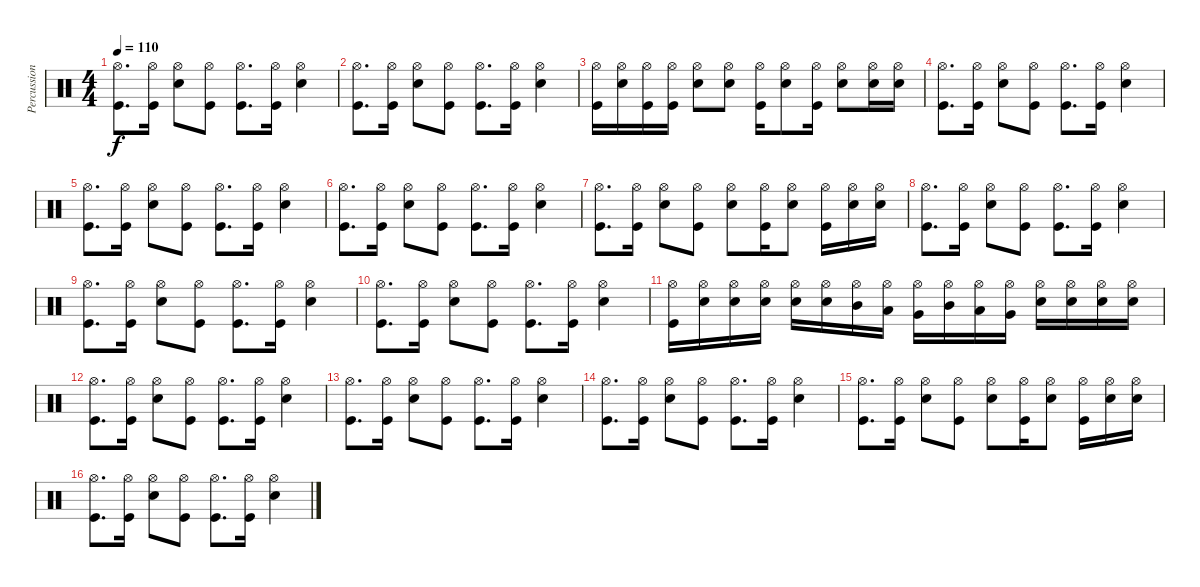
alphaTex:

\track ("Percussions" "Percussion") {instrument percussion}
\staff {score}
\articulation defaults
\ts (4 4)
\tempo 110
\clef neutral
\ks c
("Hi-Hat (open)" "Kick (hit)").8{d dy f} ("Hi-Hat (open)" "Kick (hit)").16 ("Hi-Hat (open)" "Snare (hit) 2").8 ("Hi-Hat (open)" "Kick (hit)").8 ("Hi-Hat (open)" "Kick (hit)").8{d} ("Hi-Hat (open)" "Kick (hit)").16 ("Hi-Hat (open)" "Snare (hit) 2").4 |
("Hi-Hat (open)" "Kick (hit)").8{d} ("Hi-Hat (open)" "Kick (hit)").16 ("Hi-Hat (open)" "Snare (hit) 2").8 ("Hi-Hat (open)" "Kick (hit)").8 ("Hi-Hat (open)" "Kick (hit)").8{d} ("Hi-Hat (open)" "Kick (hit)").16 ("Hi-Hat (open)" "Snare (hit) 2").4 |
("Hi-Hat (open)" "Kick (hit)").16 ("Hi-Hat (open)" "Snare (hit) 2").16 ("Hi-Hat (open)" "Kick (hit)").16 ("Hi-Hat (open)" "Kick (hit)").16 ("Hi-Hat (open)" "Snare (hit) 2").8 ("Hi-Hat (open)" "Snare (hit) 2").8 ("Hi-Hat (open)" "Kick (hit)").16 ("Hi-Hat (open)" "Snare (hit) 2").8 ("Hi-Hat (open)" "Kick (hit)").16 ("Hi-Hat (open)" "Snare (hit) 2").8 ("Hi-Hat (open)" "Snare (hit) 2").16 ("Hi-Hat (open)" "Snare (hit) 2").16 |
("Hi-Hat (open)" "Kick (hit)").8{d} ("Hi-Hat (open)" "Kick (hit)").16 ("Hi-Hat (open)" "Snare (hit) 2").8 ("Hi-Hat (open)" "Kick (hit)").8 ("Hi-Hat (open)" "Kick (hit)").8{d} ("Hi-Hat (open)" "Kick (hit)").16 ("Hi-Hat (open)" "Snare (hit) 2").4 |
("Hi-Hat (open)" "Kick (hit)").8{d} ("Hi-Hat (open)" "Kick (hit)").16 ("Hi-Hat (open)" "Snare (hit) 2").8 ("Hi-Hat (open)" "Kick (hit)").8 ("Hi-Hat (open)" "Kick (hit)").8{d} ("Hi-Hat (open)" "Kick (hit)").16 ("Hi-Hat (open)" "Snare (hit) 2").4 |
("Hi-Hat (open)" "Kick (hit)").8{d} ("Hi-Hat (open)" "Kick (hit)").16 ("Hi-Hat (open)" "Snare (hit) 2").8 ("Hi-Hat (open)" "Kick (hit)").8 ("Hi-Hat (open)" "Kick (hit)").8{d} ("Hi-Hat (open)" "Kick (hit)").16 ("Hi-Hat (open)" "Snare (hit) 2").4 |
("Hi-Hat (open)" "Kick (hit)").8{d} ("Hi-Hat (open)" "Kick (hit)").16 ("Hi-Hat (open)" "Snare (hit) 2").8 ("Hi-Hat (open)" "Kick (hit)").8 ("Hi-Hat (open)" "Snare (hit) 2").8 ("Hi-Hat (open)" "Kick (hit)").16 ("Hi-Hat (open)" "Snare (hit) 2").8 ("Hi-Hat (open)" "Kick (hit)").16 ("Hi-Hat (open)" "Snare (hit) 2").16 ("Hi-Hat (open)" "Snare (hit) 2").16 |
("Hi-Hat (open)" "Kick (hit)").8{d} ("Hi-Hat (open)" "Kick (hit)").16 ("Hi-Hat (open)" "Snare (hit) 2").8 ("Hi-Hat (open)" "Kick (hit)").8 ("Hi-Hat (open)" "Kick (hit)").8{d} ("Hi-Hat (open)" "Kick (hit)").16 ("Hi-Hat (open)" "Snare (hit) 2").4 |
("Hi-Hat (open)" "Kick (hit)").8{d} ("Hi-Hat (open)" "Kick (hit)").16 ("Hi-Hat (open)" "Snare (hit) 2").8 ("Hi-Hat (open)" "Kick (hit)").8 ("Hi-Hat (open)" "Kick (hit)").8{d} ("Hi-Hat (open)" "Kick (hit)").16 ("Hi-Hat (open)" "Snare (hit) 2").4 |
("Hi-Hat (open)" "Kick (hit)").8{d} ("Hi-Hat (open)" "Kick (hit)").16 ("Hi-Hat (open)" "Snare (hit) 2").8 ("Hi-Hat (open)" "Kick (hit)").8 ("Hi-Hat (open)" "Kick (hit)").8{d} ("Hi-Hat (open)" "Kick (hit)").16 ("Hi-Hat (open)" "Snare (hit) 2").4 |
("Hi-Hat (open)" "Kick (hit)").16 ("Hi-Hat (open)" "Snare (hit) 2").16 ("Hi-Hat (open)" "Snare (hit) 2").16 ("Hi-Hat (open)" "Snare (hit) 2").16 ("Hi-Hat (open)" "Snare (hit) 2").16 ("Hi-Hat (open)" "Snare (hit) 2").16 ("Hi-Hat (open)" "Mid Tom (hit)").16 ("Hi-Hat (open)" "Low Tom (hit)").16 ("Hi-Hat (open)" "Very Low Tom (hit)").16 ("Hi-Hat (open)" "Mid Tom (hit)").16 ("Hi-Hat (open)" "Low Tom (hit)").16 ("Hi-Hat (open)" "Very Low Tom (hit)").16 ("Hi-Hat (open)" "Snare (hit) 2").16 ("Hi-Hat (open)" "Snare (hit) 2").16 ("Hi-Hat (open)" "Snare (hit) 2").16 ("Hi-Hat (open)" "Snare (hit) 2").16 |
("Hi-Hat (open)" "Kick (hit)").8{d} ("Hi-Hat (open)" "Kick (hit)").16 ("Hi-Hat (open)" "Snare (hit) 2").8 ("Hi-Hat (open)" "Kick (hit)").8 ("Hi-Hat (open)" "Kick (hit)").8{d} ("Hi-Hat (open)" "Kick (hit)").16 ("Hi-Hat (open)" "Snare (hit) 2").4 |
("Hi-Hat (open)" "Kick (hit)").8{d} ("Hi-Hat (open)" "Kick (hit)").16 ("Hi-Hat (open)" "Snare (hit) 2").8 ("Hi-Hat (open)" "Kick (hit)").8 ("Hi-Hat (open)" "Kick (hit)").8{d} ("Hi-Hat (open)" "Kick (hit)").16 ("Hi-Hat (open)" "Snare (hit) 2").4 |
("Hi-Hat (open)" "Kick (hit)").8{d} ("Hi-Hat (open)" "Kick (hit)").16 ("Hi-Hat (open)" "Snare (hit) 2").8 ("Hi-Hat (open)" "Kick (hit)").8 ("Hi-Hat (open)" "Kick (hit)").8{d} ("Hi-Hat (open)" "Kick (hit)").16 ("Hi-Hat (open)" "Snare (hit) 2").4 |
("Hi-Hat (open)" "Kick (hit)").8{d} ("Hi-Hat (open)" "Kick (hit)").16 ("Hi-Hat (open)" "Snare (hit) 2").8 ("Hi-Hat (open)" "Kick (hit)").8 ("Hi-Hat (open)" "Snare (hit) 2").8 ("Hi-Hat (open)" "Kick (hit)").16 ("Hi-Hat (open)" "Snare (hit) 2").8 ("Hi-Hat (open)" "Kick (hit)").16 ("Hi-Hat (open)" "Snare (hit) 2").16 ("Hi-Hat (open)" "Snare (hit) 2").16 |
("Hi-Hat (open)" "Kick (hit)").8{d} ("Hi-Hat (open)" "Kick (hit)").16 ("Hi-Hat (open)" "Snare (hit) 2").8 ("Hi-Hat (open)" "Kick (hit)").8 ("Hi-Hat (open)" "Kick (hit)").8{d} ("Hi-Hat (open)" "Kick (hit)").16 ("Hi-Hat (open)" "Snare (hit) 2").4
